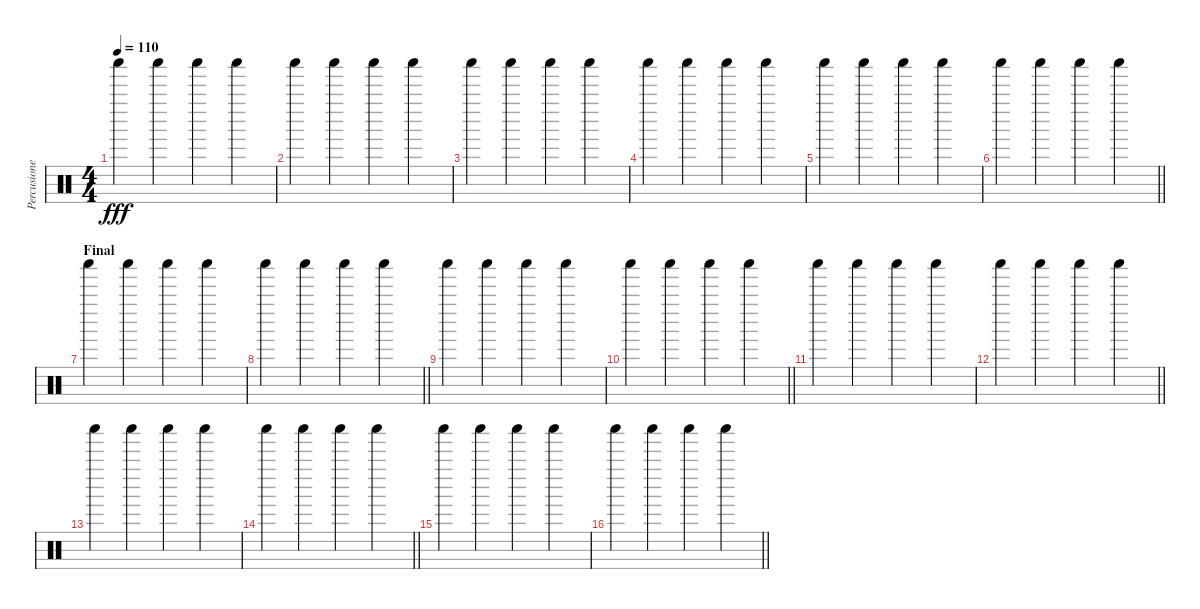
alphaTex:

\track ("Percusiones" "Percusione") {instrument percussion}
\staff {score}
\articulation defaults
\ts (4 4)
\tempo 110
\clef neutral
\ks c "Shaker (hit)".4{dy fff} "Shaker (hit)".4 "Shaker (hit)".4 "Shaker (hit)".4
|
"Shaker (hit)".4 "Shaker (hit)".4 "Shaker (hit)".4 "Shaker (hit)".4 |
"Shaker (hit)".4 "Shaker (hit)".4 "Shaker (hit)".4 "Shaker (hit)".4 |
"Shaker (hit)".4 "Shaker (hit)".4 "Shaker (hit)".4 "Shaker (hit)".4 |
"Shaker (hit)".4 "Shaker (hit)".4 "Shaker (hit)".4 "Shaker (hit)".4 |
\barLineRight lightlight "Shaker (hit)".4 "Shaker (hit)".4 "Shaker (hit)".4 "Shaker (hit)".4
|
\section ("" "Final")
"Shaker (hit)".4 "Shaker (hit)".4 "Shaker (hit)".4 "Shaker (hit)".4 |
\barLineRight lightlight "Shaker (hit)".4 "Shaker (hit)".4 "Shaker (hit)".4 "Shaker (hit)".4
|
"Shaker (hit)".4 "Shaker (hit)".4 "Shaker (hit)".4 "Shaker (hit)".4 |
\barLineRight lightlight "Shaker (hit)".4 "Shaker (hit)".4 "Shaker (hit)".4 "Shaker (hit)".4
|
"Shaker (hit)".4 "Shaker (hit)".4 "Shaker (hit)".4 "Shaker (hit)".4 |
\barLineRight lightlight "Shaker (hit)".4 "Shaker (hit)".4 "Shaker (hit)".4 "Shaker (hit)".4
|
"Shaker (hit)".4 "Shaker (hit)".4 "Shaker (hit)".4 "Shaker (hit)".4 |
\barLineRight lightlight "Shaker (hit)".4 "Shaker (hit)".4 "Shaker (hit)".4 "Shaker (hit)".4
|
"Shaker (hit)".4 "Shaker (hit)".4 "Shaker (hit)".4 "Shaker (hit)".4 |
\barLineRight lightlight "Shaker (hit)".4 "Shaker (hit)".4 "Shaker (hit)".4 "Shaker (hit)".4
